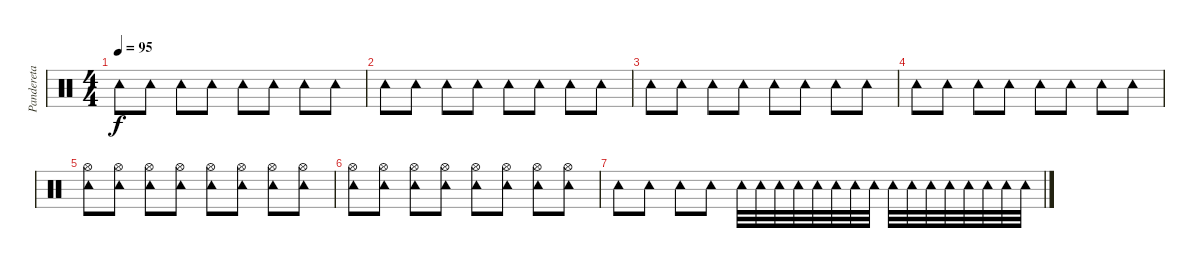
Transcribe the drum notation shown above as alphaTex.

\track ("Pandereta" "Pandereta") {instrument percussion}
\staff {score}
\articulation defaults
\ts (4 4)
\tempo 95
\clef neutral
\ks c "Tambourine (hit)".8{dy f} "Tambourine (hit)".8 "Tambourine (hit)".8 "Tambourine (hit)".8 "Tambourine (hit)".8 "Tambourine (hit)".8 "Tambourine (hit)".8 "Tambourine (hit)".8
|
"Tambourine (hit)".8 "Tambourine (hit)".8 "Tambourine (hit)".8 "Tambourine (hit)".8 "Tambourine (hit)".8 "Tambourine (hit)".8 "Tambourine (hit)".8 "Tambourine (hit)".8 |
"Tambourine (hit)".8 "Tambourine (hit)".8 "Tambourine (hit)".8 "Tambourine (hit)".8 "Tambourine (hit)".8 "Tambourine (hit)".8 "Tambourine (hit)".8 "Tambourine (hit)".8 |
"Tambourine (hit)".8 "Tambourine (hit)".8 "Tambourine (hit)".8 "Tambourine (hit)".8 "Tambourine (hit)".8 "Tambourine (hit)".8 "Tambourine (hit)".8 "Tambourine (hit)".8 |
("Tambourine (hit)" "Hi-Hat (open)").8 ("Tambourine (hit)" "Hi-Hat (open)").8 ("Tambourine (hit)" "Hi-Hat (open)").8 ("Tambourine (hit)" "Hi-Hat (open)").8 ("Tambourine (hit)" "Hi-Hat (open)").8 ("Tambourine (hit)" "Hi-Hat (open)").8 ("Tambourine (hit)" "Hi-Hat (open)").8 ("Tambourine (hit)" "Hi-Hat (open)").8 |
("Tambourine (hit)" "Hi-Hat (open)").8 ("Tambourine (hit)" "Hi-Hat (open)").8 ("Tambourine (hit)" "Hi-Hat (open)").8 ("Tambourine (hit)" "Hi-Hat (open)").8 ("Tambourine (hit)" "Hi-Hat (open)").8 ("Tambourine (hit)" "Hi-Hat (open)").8 ("Tambourine (hit)" "Hi-Hat (open)").8 ("Tambourine (hit)" "Hi-Hat (open)").8 |
"Tambourine (hit)".8 "Tambourine (hit)".8 "Tambourine (hit)".8 "Tambourine (hit)".8 "Tambourine (hit)".32 "Tambourine (hit)".32 "Tambourine (hit)".32 "Tambourine (hit)".32 "Tambourine (hit)".32 "Tambourine (hit)".32 "Tambourine (hit)".32 "Tambourine (hit)".32 "Tambourine (hit)".32 "Tambourine (hit)".32 "Tambourine (hit)".32 "Tambourine (hit)".32 "Tambourine (hit)".32 "Tambourine (hit)".32 "Tambourine (hit)".32 "Tambourine (hit)".32
